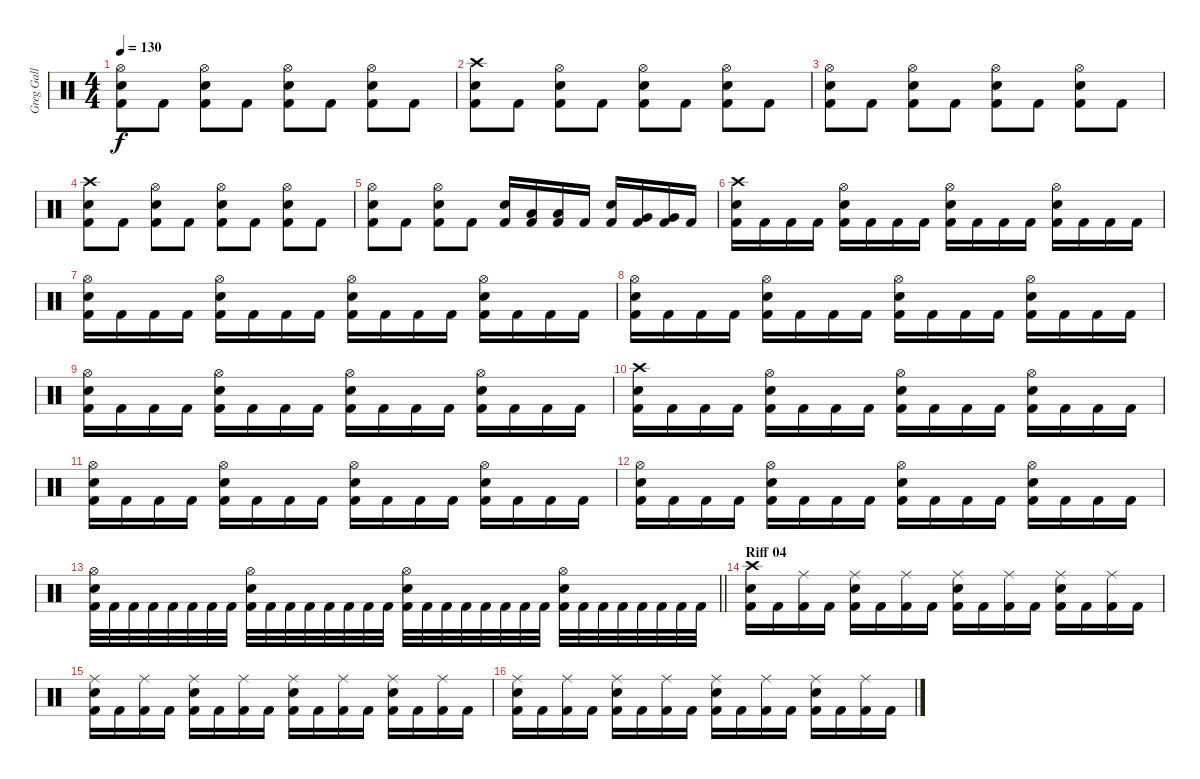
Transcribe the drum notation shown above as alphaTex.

\track ("Greg Gall" "Greg Gall") {instrument percussion}
\staff {score}
\articulation defaults
\ts (4 4)
\tempo 130
\clef neutral
\ks c
("Hi-Hat (open)" "Electric Snare (hit)" "Kick (hit) 2").8{dy f} "Kick (hit) 2".8 ("Hi-Hat (open)" "Electric Snare (hit)" "Kick (hit) 2").8 "Kick (hit) 2".8 ("Hi-Hat (open)" "Electric Snare (hit)" "Kick (hit) 2").8 "Kick (hit) 2".8 ("Hi-Hat (open)" "Electric Snare (hit)" "Kick (hit) 2").8 "Kick (hit) 2".8 |
("Crash high (hit)" "Electric Snare (hit)" "Kick (hit) 2").8 "Kick (hit) 2".8 ("Hi-Hat (open)" "Electric Snare (hit)" "Kick (hit) 2").8 "Kick (hit) 2".8 ("Hi-Hat (open)" "Electric Snare (hit)" "Kick (hit) 2").8 "Kick (hit) 2".8 ("Hi-Hat (open)" "Electric Snare (hit)" "Kick (hit) 2").8 "Kick (hit) 2".8 |
("Hi-Hat (open)" "Electric Snare (hit)" "Kick (hit) 2").8 "Kick (hit) 2".8 ("Hi-Hat (open)" "Electric Snare (hit)" "Kick (hit) 2").8 "Kick (hit) 2".8 ("Hi-Hat (open)" "Electric Snare (hit)" "Kick (hit) 2").8 "Kick (hit) 2".8 ("Hi-Hat (open)" "Electric Snare (hit)" "Kick (hit) 2").8 "Kick (hit) 2".8 |
("Crash high (hit)" "Electric Snare (hit)" "Kick (hit) 2").8 "Kick (hit) 2".8 ("Hi-Hat (open)" "Electric Snare (hit)" "Kick (hit) 2").8 "Kick (hit) 2".8 ("Hi-Hat (open)" "Electric Snare (hit)" "Kick (hit) 2").8 "Kick (hit) 2".8 ("Hi-Hat (open)" "Electric Snare (hit)" "Kick (hit) 2").8 "Kick (hit) 2".8 |
("Hi-Hat (open)" "Electric Snare (hit)" "Kick (hit) 2").8 "Kick (hit) 2".8 ("Hi-Hat (open)" "Electric Snare (hit)" "Kick (hit) 2").8 "Kick (hit) 2".8 ("Electric Snare (hit)" "Kick (hit) 2").16 ("Low Tom (hit)" "Kick (hit) 2").16 ("Low Tom (hit)" "Kick (hit) 2").16 "Kick (hit) 2".16 ("Electric Snare (hit)" "Kick (hit) 2").16 ("Very Low Tom (hit)" "Kick (hit) 2").16 ("Very Low Tom (hit)" "Kick (hit) 2").16 "Kick (hit) 2".16 |
("Crash high (hit)" "Electric Snare (hit)" "Kick (hit) 2").16 "Kick (hit) 2".16 "Kick (hit) 2".16 "Kick (hit) 2".16 ("Hi-Hat (open)" "Electric Snare (hit)" "Kick (hit) 2").16 "Kick (hit) 2".16 "Kick (hit) 2".16 "Kick (hit) 2".16 ("Hi-Hat (open)" "Electric Snare (hit)" "Kick (hit) 2").16 "Kick (hit) 2".16 "Kick (hit) 2".16 "Kick (hit) 2".16 ("Hi-Hat (open)" "Electric Snare (hit)" "Kick (hit) 2").16 "Kick (hit) 2".16 "Kick (hit) 2".16 "Kick (hit) 2".16 |
("Hi-Hat (open)" "Electric Snare (hit)" "Kick (hit) 2").16 "Kick (hit) 2".16 "Kick (hit) 2".16 "Kick (hit) 2".16 ("Hi-Hat (open)" "Electric Snare (hit)" "Kick (hit) 2").16 "Kick (hit) 2".16 "Kick (hit) 2".16 "Kick (hit) 2".16 ("Hi-Hat (open)" "Electric Snare (hit)" "Kick (hit) 2").16 "Kick (hit) 2".16 "Kick (hit) 2".16 "Kick (hit) 2".16 ("Hi-Hat (open)" "Electric Snare (hit)" "Kick (hit) 2").16 "Kick (hit) 2".16 "Kick (hit) 2".16 "Kick (hit) 2".16 |
("Hi-Hat (open)" "Electric Snare (hit)" "Kick (hit) 2").16 "Kick (hit) 2".16 "Kick (hit) 2".16 "Kick (hit) 2".16 ("Hi-Hat (open)" "Electric Snare (hit)" "Kick (hit) 2").16 "Kick (hit) 2".16 "Kick (hit) 2".16 "Kick (hit) 2".16 ("Hi-Hat (open)" "Electric Snare (hit)" "Kick (hit) 2").16 "Kick (hit) 2".16 "Kick (hit) 2".16 "Kick (hit) 2".16 ("Hi-Hat (open)" "Electric Snare (hit)" "Kick (hit) 2").16 "Kick (hit) 2".16 "Kick (hit) 2".16 "Kick (hit) 2".16 |
("Hi-Hat (open)" "Electric Snare (hit)" "Kick (hit) 2").16 "Kick (hit) 2".16 "Kick (hit) 2".16 "Kick (hit) 2".16 ("Hi-Hat (open)" "Electric Snare (hit)" "Kick (hit) 2").16 "Kick (hit) 2".16 "Kick (hit) 2".16 "Kick (hit) 2".16 ("Hi-Hat (open)" "Electric Snare (hit)" "Kick (hit) 2").16 "Kick (hit) 2".16 "Kick (hit) 2".16 "Kick (hit) 2".16 ("Hi-Hat (open)" "Electric Snare (hit)" "Kick (hit) 2").16 "Kick (hit) 2".16 "Kick (hit) 2".16 "Kick (hit) 2".16 |
("Crash high (hit)" "Electric Snare (hit)" "Kick (hit) 2").16 "Kick (hit) 2".16 "Kick (hit) 2".16 "Kick (hit) 2".16 ("Hi-Hat (open)" "Electric Snare (hit)" "Kick (hit) 2").16 "Kick (hit) 2".16 "Kick (hit) 2".16 "Kick (hit) 2".16 ("Hi-Hat (open)" "Electric Snare (hit)" "Kick (hit) 2").16 "Kick (hit) 2".16 "Kick (hit) 2".16 "Kick (hit) 2".16 ("Hi-Hat (open)" "Electric Snare (hit)" "Kick (hit) 2").16 "Kick (hit) 2".16 "Kick (hit) 2".16 "Kick (hit) 2".16 |
("Hi-Hat (open)" "Electric Snare (hit)" "Kick (hit) 2").16 "Kick (hit) 2".16 "Kick (hit) 2".16 "Kick (hit) 2".16 ("Hi-Hat (open)" "Electric Snare (hit)" "Kick (hit) 2").16 "Kick (hit) 2".16 "Kick (hit) 2".16 "Kick (hit) 2".16 ("Hi-Hat (open)" "Electric Snare (hit)" "Kick (hit) 2").16 "Kick (hit) 2".16 "Kick (hit) 2".16 "Kick (hit) 2".16 ("Hi-Hat (open)" "Electric Snare (hit)" "Kick (hit) 2").16 "Kick (hit) 2".16 "Kick (hit) 2".16 "Kick (hit) 2".16 |
("Hi-Hat (open)" "Electric Snare (hit)" "Kick (hit) 2").16 "Kick (hit) 2".16 "Kick (hit) 2".16 "Kick (hit) 2".16 ("Hi-Hat (open)" "Electric Snare (hit)" "Kick (hit) 2").16 "Kick (hit) 2".16 "Kick (hit) 2".16 "Kick (hit) 2".16 ("Hi-Hat (open)" "Electric Snare (hit)" "Kick (hit) 2").16 "Kick (hit) 2".16 "Kick (hit) 2".16 "Kick (hit) 2".16 ("Hi-Hat (open)" "Electric Snare (hit)" "Kick (hit) 2").16 "Kick (hit) 2".16 "Kick (hit) 2".16 "Kick (hit) 2".16 |
\barLineRight lightlight
("Hi-Hat (open)" "Electric Snare (hit)" "Kick (hit) 2").32 "Kick (hit) 2".32 "Kick (hit) 2".32 "Kick (hit) 2".32 "Kick (hit) 2".32 "Kick (hit) 2".32 "Kick (hit) 2".32 "Kick (hit) 2".32 ("Hi-Hat (open)" "Electric Snare (hit)" "Kick (hit) 2").32 "Kick (hit) 2".32 "Kick (hit) 2".32 "Kick (hit) 2".32 "Kick (hit) 2".32 "Kick (hit) 2".32 "Kick (hit) 2".32 "Kick (hit) 2".32 ("Hi-Hat (open)" "Electric Snare (hit)" "Kick (hit) 2").32 "Kick (hit) 2".32 "Kick (hit) 2".32 "Kick (hit) 2".32 "Kick (hit) 2".32 "Kick (hit) 2".32 "Kick (hit) 2".32 "Kick (hit) 2".32 ("Hi-Hat (open)" "Electric Snare (hit)" "Kick (hit) 2").32 "Kick (hit) 2".32 "Kick (hit) 2".32 "Kick (hit) 2".32 "Kick (hit) 2".32 "Kick (hit) 2".32 "Kick (hit) 2".32 "Kick (hit) 2".32 |
\section ("" "Riff 04")
("Crash high (hit)" "Electric Snare (hit)" "Kick (hit) 2").16 "Kick (hit) 2".16 ("Ride (middle)" "Kick (hit) 2").16 "Kick (hit) 2".16 ("Ride (middle)" "Electric Snare (hit)" "Kick (hit) 2").16 "Kick (hit) 2".16 ("Ride (middle)" "Kick (hit) 2").16 "Kick (hit) 2".16 ("Ride (middle)" "Electric Snare (hit)" "Kick (hit) 2").16 "Kick (hit) 2".16 ("Ride (middle)" "Kick (hit) 2").16 "Kick (hit) 2".16 ("Ride (middle)" "Electric Snare (hit)" "Kick (hit) 2").16 "Kick (hit) 2".16 ("Ride (middle)" "Kick (hit) 2").16 "Kick (hit) 2".16 |
("Ride (middle)" "Electric Snare (hit)" "Kick (hit) 2").16 "Kick (hit) 2".16 ("Ride (middle)" "Kick (hit) 2").16 "Kick (hit) 2".16 ("Ride (middle)" "Electric Snare (hit)" "Kick (hit) 2").16 "Kick (hit) 2".16 ("Ride (middle)" "Kick (hit) 2").16 "Kick (hit) 2".16 ("Ride (middle)" "Electric Snare (hit)" "Kick (hit) 2").16 "Kick (hit) 2".16 ("Ride (middle)" "Kick (hit) 2").16 "Kick (hit) 2".16 ("Ride (middle)" "Electric Snare (hit)" "Kick (hit) 2").16 "Kick (hit) 2".16 ("Ride (middle)" "Kick (hit) 2").16 "Kick (hit) 2".16 |
("Ride (middle)" "Electric Snare (hit)" "Kick (hit) 2").16 "Kick (hit) 2".16 ("Ride (middle)" "Kick (hit) 2").16 "Kick (hit) 2".16 ("Ride (middle)" "Electric Snare (hit)" "Kick (hit) 2").16 "Kick (hit) 2".16 ("Ride (middle)" "Kick (hit) 2").16 "Kick (hit) 2".16 ("Ride (middle)" "Electric Snare (hit)" "Kick (hit) 2").16 "Kick (hit) 2".16 ("Ride (middle)" "Kick (hit) 2").16 "Kick (hit) 2".16 ("Ride (middle)" "Electric Snare (hit)" "Kick (hit) 2").16 "Kick (hit) 2".16 ("Ride (middle)" "Kick (hit) 2").16 "Kick (hit) 2".16
